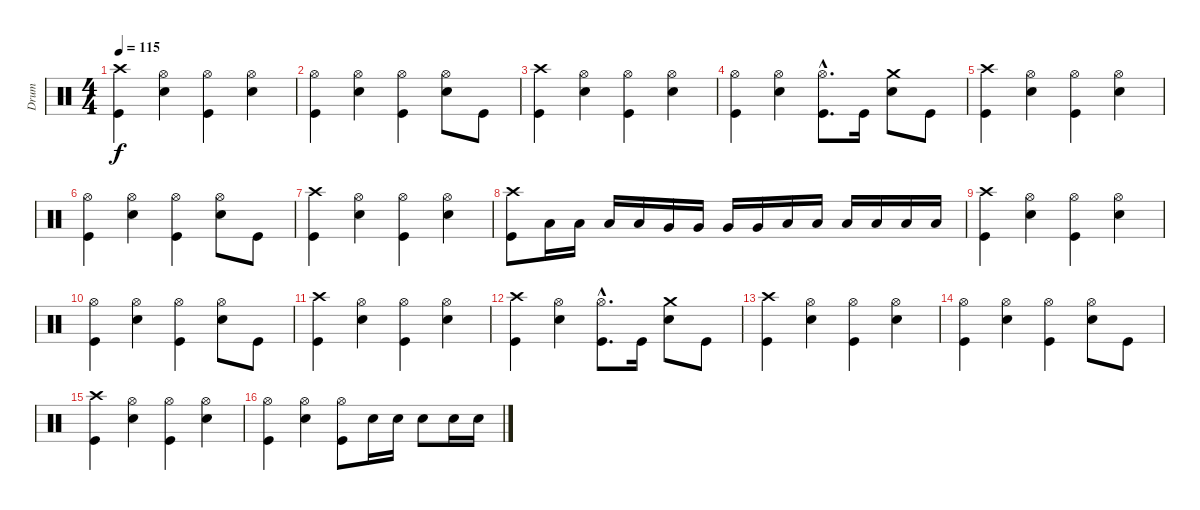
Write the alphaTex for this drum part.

\track ("Drum" "Drum") {instrument percussion}
\staff {score}
\articulation defaults
\ts (4 4)
\tempo 115
\clef neutral
\ks c
("Kick (hit)" "Crash high (hit)").4{dy f} ("Hi-Hat (open)" "Snare (hit) 2").4 ("Kick (hit)" "Hi-Hat (open)").4 ("Hi-Hat (open)" "Snare (hit) 2").4 |
("Kick (hit)" "Hi-Hat (open)").4 ("Hi-Hat (open)" "Snare (hit) 2").4 ("Kick (hit)" "Hi-Hat (open)").4 ("Hi-Hat (open)" "Snare (hit) 2").8 "Kick (hit)".8 |
("Kick (hit)" "Crash high (hit)").4 ("Hi-Hat (open)" "Snare (hit) 2").4 ("Kick (hit)" "Hi-Hat (open)").4 ("Hi-Hat (open)" "Snare (hit) 2").4 |
("Kick (hit)" "Hi-Hat (open)").4 ("Hi-Hat (open)" "Snare (hit) 2").4 ("Kick (hit)"{hac} "Hi-Hat (open)"{hac}).8{d} "Kick (hit)".16 ("Crash medium (hit)" "Snare (hit) 2").8 "Kick (hit)".8 |
("Kick (hit)" "Crash high (hit)").4 ("Hi-Hat (open)" "Snare (hit) 2").4 ("Kick (hit)" "Hi-Hat (open)").4 ("Hi-Hat (open)" "Snare (hit) 2").4 |
("Kick (hit)" "Hi-Hat (open)").4 ("Hi-Hat (open)" "Snare (hit) 2").4 ("Kick (hit)" "Hi-Hat (open)").4 ("Hi-Hat (open)" "Snare (hit) 2").8 "Kick (hit)".8 |
("Kick (hit)" "Crash high (hit)").4 ("Hi-Hat (open)" "Snare (hit) 2").4 ("Kick (hit)" "Hi-Hat (open)").4 ("Hi-Hat (open)" "Snare (hit) 2").4 |
("Kick (hit)" "Crash high (hit)").8 "Low Tom (hit)".16 "Low Tom (hit)".16 "Low Tom (hit)".16 "Low Tom (hit)".16 "Very Low Tom (hit)".16 "Very Low Tom (hit)".16 "Very Low Tom (hit)".16 "Very Low Tom (hit)".16 "Low Floor Tom (hit)".16 "Low Floor Tom (hit)".16 "Low Floor Tom (hit)".16 "Low Floor Tom (hit)".16 "Low Floor Tom (hit)".16 "Low Floor Tom (hit)".16 |
("Kick (hit)" "Crash high (hit)").4 ("Hi-Hat (open)" "Snare (hit) 2").4 ("Kick (hit)" "Hi-Hat (open)").4 ("Hi-Hat (open)" "Snare (hit) 2").4 |
("Kick (hit)" "Hi-Hat (open)").4 ("Hi-Hat (open)" "Snare (hit) 2").4 ("Kick (hit)" "Hi-Hat (open)").4 ("Hi-Hat (open)" "Snare (hit) 2").8 "Kick (hit)".8 |
("Kick (hit)" "Crash high (hit)").4 ("Hi-Hat (open)" "Snare (hit) 2").4 ("Kick (hit)" "Hi-Hat (open)").4 ("Hi-Hat (open)" "Snare (hit) 2").4 |
("Kick (hit)" "Crash high (hit)").4 ("Hi-Hat (open)" "Snare (hit) 2").4 ("Kick (hit)"{hac} "Hi-Hat (open)"{hac}).8{d} "Kick (hit)".16 ("Crash medium (hit)" "Snare (hit) 2").8 "Kick (hit)".8 |
("Kick (hit)" "Crash high (hit)").4 ("Hi-Hat (open)" "Snare (hit) 2").4 ("Kick (hit)" "Hi-Hat (open)").4 ("Hi-Hat (open)" "Snare (hit) 2").4 |
("Kick (hit)" "Hi-Hat (open)").4 ("Hi-Hat (open)" "Snare (hit) 2").4 ("Kick (hit)" "Hi-Hat (open)").4 ("Hi-Hat (open)" "Snare (hit) 2").8 "Kick (hit)".8 |
("Kick (hit)" "Crash high (hit)").4 ("Hi-Hat (open)" "Snare (hit) 2").4 ("Kick (hit)" "Hi-Hat (open)").4 ("Hi-Hat (open)" "Snare (hit) 2").4 |
("Kick (hit)" "Hi-Hat (open)").4 ("Hi-Hat (open)" "Snare (hit) 2").4 ("Kick (hit)" "Hi-Hat (open)").8 "Snare (hit) 2".16 "Snare (hit) 2".16 "Snare (hit) 2".8 "Snare (hit) 2".16 "Snare (hit) 2".16
